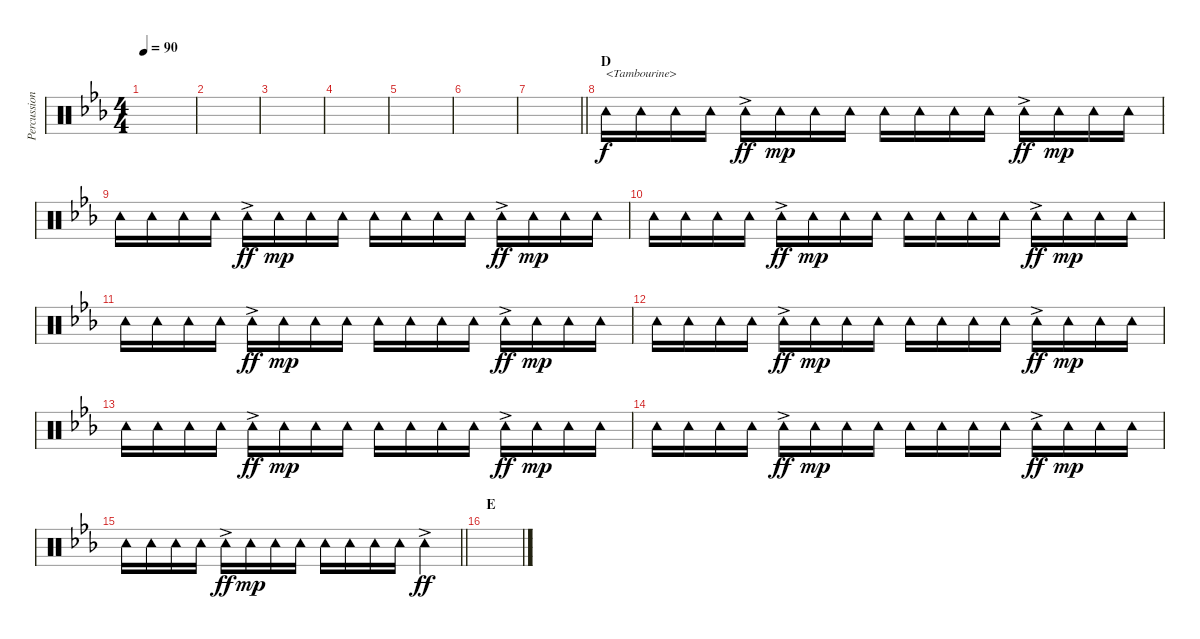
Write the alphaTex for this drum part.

\track ("Percussion" "Percussion") {instrument percussion}
\staff {score}
\articulation defaults
\ts (4 4)
\tempo 90
\clef neutral
\ks eb
|
|
|
|
|
|
\barLineRight lightlight
|
\section ("" "D")
"Tambourine (hit)".16{txt "<Tambourine>"} "Tambourine (hit)".16 "Tambourine (hit)".16 "Tambourine (hit)".16 "Tambourine (hit)"{ac}.16{dy ff} "Tambourine (hit)".16{dy mp} "Tambourine (hit)".16 "Tambourine (hit)".16 "Tambourine (hit)".16 "Tambourine (hit)".16 "Tambourine (hit)".16 "Tambourine (hit)".16 "Tambourine (hit)"{ac}.16{dy ff} "Tambourine (hit)".16{dy mp} "Tambourine (hit)".16 "Tambourine (hit)".16 |
"Tambourine (hit)".16 "Tambourine (hit)".16 "Tambourine (hit)".16 "Tambourine (hit)".16 "Tambourine (hit)"{ac}.16{dy ff} "Tambourine (hit)".16{dy mp} "Tambourine (hit)".16 "Tambourine (hit)".16 "Tambourine (hit)".16 "Tambourine (hit)".16 "Tambourine (hit)".16 "Tambourine (hit)".16 "Tambourine (hit)"{ac}.16{dy ff} "Tambourine (hit)".16{dy mp} "Tambourine (hit)".16 "Tambourine (hit)".16 |
"Tambourine (hit)".16 "Tambourine (hit)".16 "Tambourine (hit)".16 "Tambourine (hit)".16 "Tambourine (hit)"{ac}.16{dy ff} "Tambourine (hit)".16{dy mp} "Tambourine (hit)".16 "Tambourine (hit)".16 "Tambourine (hit)".16 "Tambourine (hit)".16 "Tambourine (hit)".16 "Tambourine (hit)".16 "Tambourine (hit)"{ac}.16{dy ff} "Tambourine (hit)".16{dy mp} "Tambourine (hit)".16 "Tambourine (hit)".16 |
"Tambourine (hit)".16 "Tambourine (hit)".16 "Tambourine (hit)".16 "Tambourine (hit)".16 "Tambourine (hit)"{ac}.16{dy ff} "Tambourine (hit)".16{dy mp} "Tambourine (hit)".16 "Tambourine (hit)".16 "Tambourine (hit)".16 "Tambourine (hit)".16 "Tambourine (hit)".16 "Tambourine (hit)".16 "Tambourine (hit)"{ac}.16{dy ff} "Tambourine (hit)".16{dy mp} "Tambourine (hit)".16 "Tambourine (hit)".16 |
"Tambourine (hit)".16 "Tambourine (hit)".16 "Tambourine (hit)".16 "Tambourine (hit)".16 "Tambourine (hit)"{ac}.16{dy ff} "Tambourine (hit)".16{dy mp} "Tambourine (hit)".16 "Tambourine (hit)".16 "Tambourine (hit)".16 "Tambourine (hit)".16 "Tambourine (hit)".16 "Tambourine (hit)".16 "Tambourine (hit)"{ac}.16{dy ff} "Tambourine (hit)".16{dy mp} "Tambourine (hit)".16 "Tambourine (hit)".16 |
"Tambourine (hit)".16 "Tambourine (hit)".16 "Tambourine (hit)".16 "Tambourine (hit)".16 "Tambourine (hit)"{ac}.16{dy ff} "Tambourine (hit)".16{dy mp} "Tambourine (hit)".16 "Tambourine (hit)".16 "Tambourine (hit)".16 "Tambourine (hit)".16 "Tambourine (hit)".16 "Tambourine (hit)".16 "Tambourine (hit)"{ac}.16{dy ff} "Tambourine (hit)".16{dy mp} "Tambourine (hit)".16 "Tambourine (hit)".16 |
"Tambourine (hit)".16 "Tambourine (hit)".16 "Tambourine (hit)".16 "Tambourine (hit)".16 "Tambourine (hit)"{ac}.16{dy ff} "Tambourine (hit)".16{dy mp} "Tambourine (hit)".16 "Tambourine (hit)".16 "Tambourine (hit)".16 "Tambourine (hit)".16 "Tambourine (hit)".16 "Tambourine (hit)".16 "Tambourine (hit)"{ac}.16{dy ff} "Tambourine (hit)".16{dy mp} "Tambourine (hit)".16 "Tambourine (hit)".16 |
\barLineRight lightlight "Tambourine (hit)".16 "Tambourine (hit)".16 "Tambourine (hit)".16 "Tambourine (hit)".16 "Tambourine (hit)"{ac}.16{dy ff} "Tambourine (hit)".16{dy mp} "Tambourine (hit)".16 "Tambourine (hit)".16 "Tambourine (hit)".16 "Tambourine (hit)".16 "Tambourine (hit)".16 "Tambourine (hit)".16 "Tambourine (hit)"{ac}.4{dy ff}
|
\section ("" "E")
